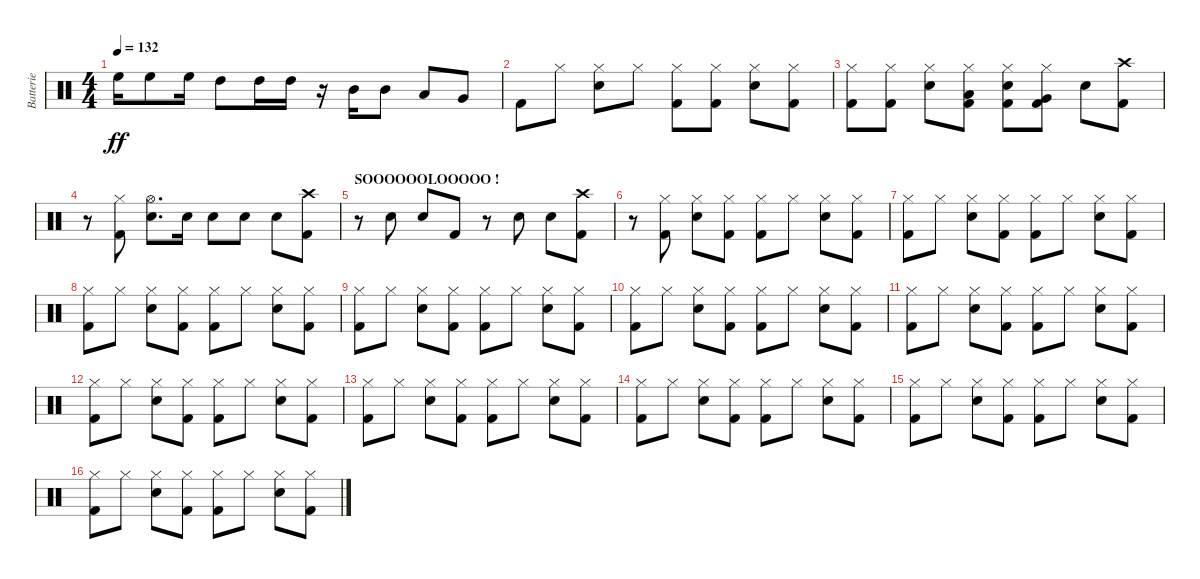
\track ("Batterie" "Batterie") {instrument percussion}
\staff {score}
\articulation defaults
\ts (4 4)
\tempo 132
\clef neutral
\ks c "High Floor Tom (hit)".16{dy ff} "High Floor Tom (hit)".8 "High Floor Tom (hit)".16 "High Tom (hit)".8 "High Tom (hit)".16 "High Tom (hit)".16
r.16 "Mid Tom (hit)".16 "Mid Tom (hit)".8 "Low Tom (hit)".8 "Very Low Tom (hit)".8 |
"Kick (hit) 2".8 "Hi-Hat (closed)".8 ("Snare (hit) 2" "Hi-Hat (closed)").8 "Hi-Hat (closed)".8 ("Kick (hit) 2" "Hi-Hat (closed)").8 ("Kick (hit) 2" "Hi-Hat (closed)").8 ("Snare (hit) 2" "Hi-Hat (closed)").8 ("Kick (hit) 2" "Hi-Hat (closed)").8 |
("Kick (hit) 2" "Hi-Hat (closed)").8 ("Kick (hit) 2" "Hi-Hat (closed)").8 ("Snare (hit) 2" "Hi-Hat (closed)").8 ("Kick (hit) 2" "Hi-Hat (closed)" "Low Tom (hit)").8 ("Kick (hit) 2" "Snare (hit) 2" "Hi-Hat (closed)").8 ("Kick (hit) 2" "Hi-Hat (closed)" "Very Low Tom (hit)").8 "Snare (hit) 2".8 ("Kick (hit) 2" "Crash high (hit)").8 |
r.8 ("Kick (hit) 2" "Hi-Hat (closed)").8 ("Snare (hit) 2" "Hi-Hat (open)").8{d} "Snare (hit) 2".16 "Snare (hit) 2".8 "Snare (hit) 2".8 "Snare (hit) 2".8 ("Kick (hit) 2" "Crash high (hit)").8 |
\section ("" "SOOOOOOLOOOOO !")
r.8 "Snare (hit) 2".8 "Snare (hit) 2".8 "Kick (hit) 2".8 r.8 "Snare (hit) 2".8 "Snare (hit) 2".8 ("Kick (hit) 2" "Crash high (hit)").8 |
r.8 ("Kick (hit) 2" "Hi-Hat (closed)").8 ("Snare (hit) 2" "Hi-Hat (closed)").8 ("Kick (hit) 2" "Hi-Hat (closed)").8 ("Kick (hit) 2" "Hi-Hat (closed)").8 "Hi-Hat (closed)".8 ("Snare (hit) 2" "Hi-Hat (closed)").8 ("Kick (hit) 2" "Hi-Hat (closed)").8 |
("Kick (hit) 2" "Hi-Hat (closed)").8 "Hi-Hat (closed)".8 ("Snare (hit) 2" "Hi-Hat (closed)").8 ("Kick (hit) 2" "Hi-Hat (closed)").8 ("Kick (hit) 2" "Hi-Hat (closed)").8 "Hi-Hat (closed)".8 ("Snare (hit) 2" "Hi-Hat (closed)").8 ("Kick (hit) 2" "Hi-Hat (closed)").8 |
("Kick (hit) 2" "Hi-Hat (closed)").8 "Hi-Hat (closed)".8 ("Snare (hit) 2" "Hi-Hat (closed)").8 ("Kick (hit) 2" "Hi-Hat (closed)").8 ("Kick (hit) 2" "Hi-Hat (closed)").8 "Hi-Hat (closed)".8 ("Snare (hit) 2" "Hi-Hat (closed)").8 ("Kick (hit) 2" "Hi-Hat (closed)").8 |
("Kick (hit) 2" "Hi-Hat (closed)").8 "Hi-Hat (closed)".8 ("Snare (hit) 2" "Hi-Hat (closed)").8 ("Kick (hit) 2" "Hi-Hat (closed)").8 ("Kick (hit) 2" "Hi-Hat (closed)").8 "Hi-Hat (closed)".8 ("Snare (hit) 2" "Hi-Hat (closed)").8 ("Kick (hit) 2" "Hi-Hat (closed)").8 |
("Kick (hit) 2" "Hi-Hat (closed)").8 "Hi-Hat (closed)".8 ("Snare (hit) 2" "Hi-Hat (closed)").8 ("Kick (hit) 2" "Hi-Hat (closed)").8 ("Kick (hit) 2" "Hi-Hat (closed)").8 "Hi-Hat (closed)".8 ("Snare (hit) 2" "Hi-Hat (closed)").8 ("Kick (hit) 2" "Hi-Hat (closed)").8 |
("Kick (hit) 2" "Hi-Hat (closed)").8 "Hi-Hat (closed)".8 ("Snare (hit) 2" "Hi-Hat (closed)").8 ("Kick (hit) 2" "Hi-Hat (closed)").8 ("Kick (hit) 2" "Hi-Hat (closed)").8 "Hi-Hat (closed)".8 ("Snare (hit) 2" "Hi-Hat (closed)").8 ("Kick (hit) 2" "Hi-Hat (closed)").8 |
("Kick (hit) 2" "Hi-Hat (closed)").8 "Hi-Hat (closed)".8 ("Snare (hit) 2" "Hi-Hat (closed)").8 ("Kick (hit) 2" "Hi-Hat (closed)").8 ("Kick (hit) 2" "Hi-Hat (closed)").8 "Hi-Hat (closed)".8 ("Snare (hit) 2" "Hi-Hat (closed)").8 ("Kick (hit) 2" "Hi-Hat (closed)").8 |
("Kick (hit) 2" "Hi-Hat (closed)").8 "Hi-Hat (closed)".8 ("Snare (hit) 2" "Hi-Hat (closed)").8 ("Kick (hit) 2" "Hi-Hat (closed)").8 ("Kick (hit) 2" "Hi-Hat (closed)").8 "Hi-Hat (closed)".8 ("Snare (hit) 2" "Hi-Hat (closed)").8 ("Kick (hit) 2" "Hi-Hat (closed)").8 |
("Kick (hit) 2" "Hi-Hat (closed)").8 "Hi-Hat (closed)".8 ("Snare (hit) 2" "Hi-Hat (closed)").8 ("Kick (hit) 2" "Hi-Hat (closed)").8 ("Kick (hit) 2" "Hi-Hat (closed)").8 "Hi-Hat (closed)".8 ("Snare (hit) 2" "Hi-Hat (closed)").8 ("Kick (hit) 2" "Hi-Hat (closed)").8 |
("Kick (hit) 2" "Hi-Hat (closed)").8 "Hi-Hat (closed)".8 ("Snare (hit) 2" "Hi-Hat (closed)").8 ("Kick (hit) 2" "Hi-Hat (closed)").8 ("Kick (hit) 2" "Hi-Hat (closed)").8 "Hi-Hat (closed)".8 ("Snare (hit) 2" "Hi-Hat (closed)").8 ("Kick (hit) 2" "Hi-Hat (closed)").8 |
("Kick (hit) 2" "Hi-Hat (closed)").8 "Hi-Hat (closed)".8 ("Snare (hit) 2" "Hi-Hat (closed)").8 ("Kick (hit) 2" "Hi-Hat (closed)").8 ("Kick (hit) 2" "Hi-Hat (closed)").8 "Hi-Hat (closed)".8 ("Snare (hit) 2" "Hi-Hat (closed)").8 ("Kick (hit) 2" "Hi-Hat (closed)").8
